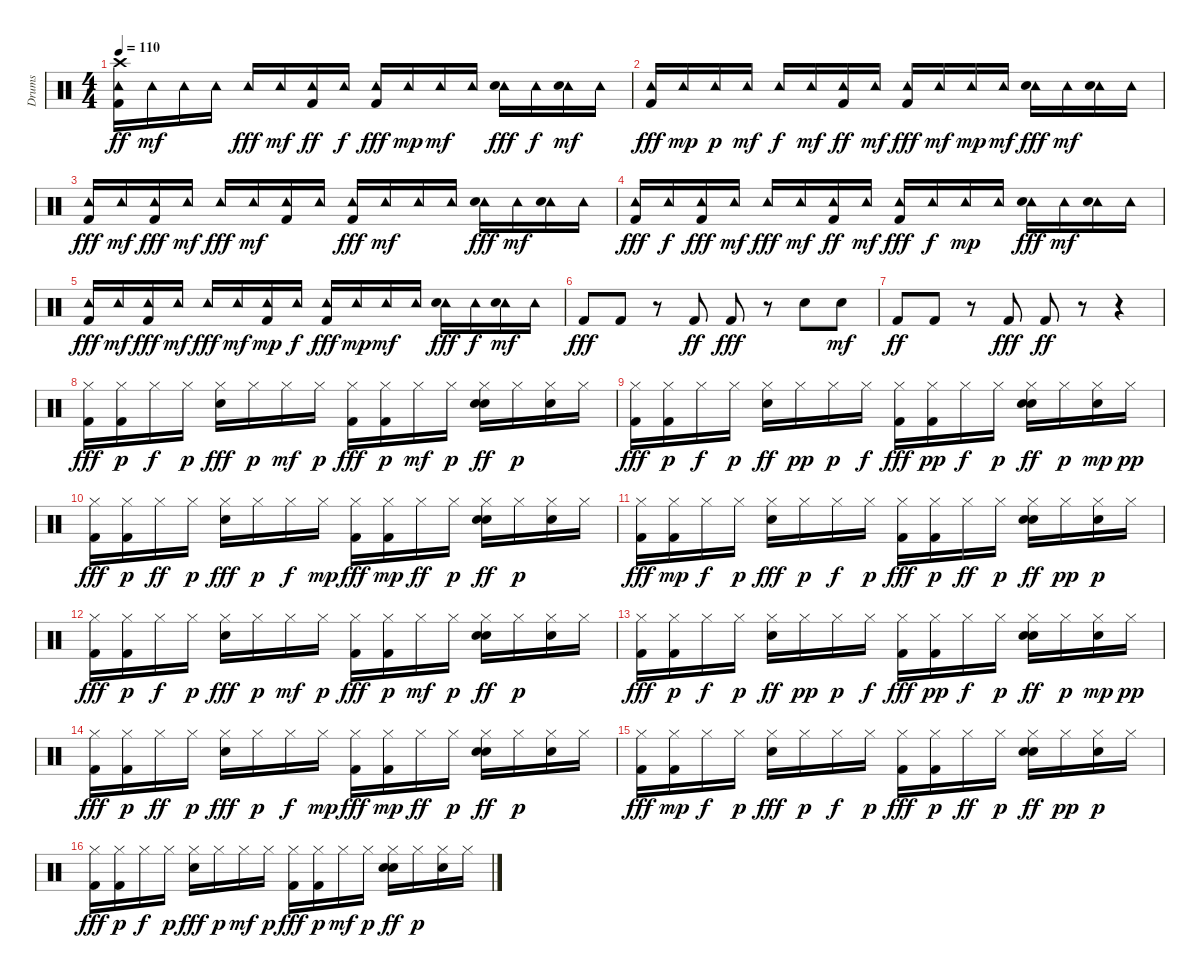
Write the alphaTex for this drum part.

\track ("Drums" "Drums") {instrument percussion}
\staff {score}
\articulation defaults
\ts (4 4)
\tempo 110
\clef neutral
\ks c
("Crash high (hit)" "Tambourine (hit)" "Kick (hit) 2").16{dy ff} "Tambourine (hit)".16{dy mf} "Tambourine (hit)".16 "Tambourine (hit)".16 "Tambourine (hit)".16{dy fff} "Tambourine (hit)".16{dy mf} ("Tambourine (hit)" "Kick (hit) 2").16{dy ff} "Tambourine (hit)".16{dy f} ("Tambourine (hit)" "Kick (hit) 2").16{dy fff} "Tambourine (hit)".16{dy mp} "Tambourine (hit)".16{dy mf} "Tambourine (hit)".16 ("Tambourine (hit)" "Hand Clap (hit)").16{dy fff} "Tambourine (hit)".16{dy f} ("Tambourine (hit)" "Hand Clap (hit)").16{dy mf} "Tambourine (hit)".16 |
("Tambourine (hit)" "Kick (hit) 2").16{dy fff} "Tambourine (hit)".16{dy mp} "Tambourine (hit)".16{dy p} "Tambourine (hit)".16{dy mf} "Tambourine (hit)".16{dy f} "Tambourine (hit)".16{dy mf} ("Tambourine (hit)" "Kick (hit) 2").16{dy ff} "Tambourine (hit)".16{dy mf} ("Tambourine (hit)" "Kick (hit) 2").16{dy fff} "Tambourine (hit)".16{dy mf} "Tambourine (hit)".16{dy mp} "Tambourine (hit)".16{dy mf} ("Tambourine (hit)" "Hand Clap (hit)").16{dy fff} "Tambourine (hit)".16{dy mf} ("Tambourine (hit)" "Hand Clap (hit)").16 "Tambourine (hit)".16 |
("Tambourine (hit)" "Kick (hit) 2").16{dy fff} "Tambourine (hit)".16{dy mf} ("Tambourine (hit)" "Kick (hit) 2").16{dy fff} "Tambourine (hit)".16{dy mf} "Tambourine (hit)".16{dy fff} "Tambourine (hit)".16{dy mf} ("Tambourine (hit)" "Kick (hit) 2").16 "Tambourine (hit)".16 ("Tambourine (hit)" "Kick (hit) 2").16{dy fff} "Tambourine (hit)".16{dy mf} "Tambourine (hit)".16 "Tambourine (hit)".16 ("Tambourine (hit)" "Hand Clap (hit)").16{dy fff} "Tambourine (hit)".16{dy mf} ("Tambourine (hit)" "Hand Clap (hit)").16 "Tambourine (hit)".16 |
("Tambourine (hit)" "Kick (hit) 2").16{dy fff} "Tambourine (hit)".16{dy f} ("Tambourine (hit)" "Kick (hit) 2").16{dy fff} "Tambourine (hit)".16{dy mf} "Tambourine (hit)".16{dy fff} "Tambourine (hit)".16{dy mf} ("Tambourine (hit)" "Kick (hit) 2").16{dy ff} "Tambourine (hit)".16{dy mf} ("Tambourine (hit)" "Kick (hit) 2").16{dy fff} "Tambourine (hit)".16{dy f} "Tambourine (hit)".16{dy mp} "Tambourine (hit)".16 ("Tambourine (hit)" "Hand Clap (hit)").16{dy fff} "Tambourine (hit)".16{dy mf} ("Tambourine (hit)" "Hand Clap (hit)").16 "Tambourine (hit)".16 |
("Tambourine (hit)" "Kick (hit) 2").16{dy fff} "Tambourine (hit)".16{dy mf} ("Tambourine (hit)" "Kick (hit) 2").16{dy fff} "Tambourine (hit)".16{dy mf} "Tambourine (hit)".16{dy fff} "Tambourine (hit)".16{dy mf} ("Tambourine (hit)" "Kick (hit) 2").16{dy mp} "Tambourine (hit)".16{dy f} ("Tambourine (hit)" "Kick (hit) 2").16{dy fff} "Tambourine (hit)".16{dy mp} "Tambourine (hit)".16{dy mf} "Tambourine (hit)".16 ("Tambourine (hit)" "Hand Clap (hit)").16{dy fff} "Tambourine (hit)".16{dy f} ("Tambourine (hit)" "Hand Clap (hit)").16{dy mf} "Tambourine (hit)".16 |
"Kick (hit) 2".8{dy fff} "Kick (hit) 2".8 r.8 "Kick (hit) 2".8{dy ff} "Kick (hit) 2".8{dy fff} r.8 "Hand Clap (hit)".8 "Hand Clap (hit)".8{dy mf} |
"Kick (hit) 2".8{dy ff} "Kick (hit) 2".8 r.8 "Kick (hit) 2".8{dy fff} "Kick (hit) 2".8{dy ff} r.8 r.4 |
("Hi-Hat (closed)" "Kick (hit) 2").16{dy fff} ("Hi-Hat (closed)" "Kick (hit) 2").16{dy p} "Hi-Hat (closed)".16{dy f} "Hi-Hat (closed)".16{dy p} ("Hi-Hat (closed)" "Snare (hit) 2").16{dy fff} "Hi-Hat (closed)".16{dy p} "Hi-Hat (closed)".16{dy mf} "Hi-Hat (closed)".16{dy p} ("Hi-Hat (closed)" "Kick (hit) 2").16{dy fff} ("Hi-Hat (closed)" "Kick (hit) 2").16{dy p} "Hi-Hat (closed)".16{dy mf} "Hi-Hat (closed)".16{dy p} ("Hi-Hat (closed)" "Snare (hit) 2" "Hand Clap (hit)").16{dy ff} "Hi-Hat (closed)".16{dy p} ("Hi-Hat (closed)" "Hand Clap (hit)").16 "Hi-Hat (closed)".16 |
("Hi-Hat (closed)" "Kick (hit) 2").16{dy fff} ("Hi-Hat (closed)" "Kick (hit) 2").16{dy p} "Hi-Hat (closed)".16{dy f} "Hi-Hat (closed)".16{dy p} ("Hi-Hat (closed)" "Snare (hit) 2").16{dy ff} "Hi-Hat (closed)".16{dy pp} "Hi-Hat (closed)".16{dy p} "Hi-Hat (closed)".16{dy f} ("Hi-Hat (closed)" "Kick (hit) 2").16{dy fff} ("Hi-Hat (closed)" "Kick (hit) 2").16{dy pp} "Hi-Hat (closed)".16{dy f} "Hi-Hat (closed)".16{dy p} ("Hi-Hat (closed)" "Snare (hit) 2" "Hand Clap (hit)").16{dy ff} "Hi-Hat (closed)".16{dy p} ("Hi-Hat (closed)" "Hand Clap (hit)").16{dy mp} "Hi-Hat (closed)".16{dy pp} |
("Hi-Hat (closed)" "Kick (hit) 2").16{dy fff} ("Hi-Hat (closed)" "Kick (hit) 2").16{dy p} "Hi-Hat (closed)".16{dy ff} "Hi-Hat (closed)".16{dy p} ("Hi-Hat (closed)" "Snare (hit) 2").16{dy fff} "Hi-Hat (closed)".16{dy p} "Hi-Hat (closed)".16{dy f} "Hi-Hat (closed)".16{dy mp} ("Hi-Hat (closed)" "Kick (hit) 2").16{dy fff} ("Hi-Hat (closed)" "Kick (hit) 2").16{dy mp} "Hi-Hat (closed)".16{dy ff} "Hi-Hat (closed)".16{dy p} ("Hi-Hat (closed)" "Snare (hit) 2" "Hand Clap (hit)").16{dy ff} "Hi-Hat (closed)".16{dy p} ("Hi-Hat (closed)" "Hand Clap (hit)").16 "Hi-Hat (closed)".16 |
("Hi-Hat (closed)" "Kick (hit) 2").16{dy fff} ("Hi-Hat (closed)" "Kick (hit) 2").16{dy mp} "Hi-Hat (closed)".16{dy f} "Hi-Hat (closed)".16{dy p} ("Hi-Hat (closed)" "Snare (hit) 2").16{dy fff} "Hi-Hat (closed)".16{dy p} "Hi-Hat (closed)".16{dy f} "Hi-Hat (closed)".16{dy p} ("Hi-Hat (closed)" "Kick (hit) 2").16{dy fff} ("Hi-Hat (closed)" "Kick (hit) 2").16{dy p} "Hi-Hat (closed)".16{dy ff} "Hi-Hat (closed)".16{dy p} ("Hi-Hat (closed)" "Snare (hit) 2" "Hand Clap (hit)").16{dy ff} "Hi-Hat (closed)".16{dy pp} ("Hi-Hat (closed)" "Hand Clap (hit)").16{dy p} "Hi-Hat (closed)".16 |
("Hi-Hat (closed)" "Kick (hit) 2").16{dy fff} ("Hi-Hat (closed)" "Kick (hit) 2").16{dy p} "Hi-Hat (closed)".16{dy f} "Hi-Hat (closed)".16{dy p} ("Hi-Hat (closed)" "Snare (hit) 2").16{dy fff} "Hi-Hat (closed)".16{dy p} "Hi-Hat (closed)".16{dy mf} "Hi-Hat (closed)".16{dy p} ("Hi-Hat (closed)" "Kick (hit) 2").16{dy fff} ("Hi-Hat (closed)" "Kick (hit) 2").16{dy p} "Hi-Hat (closed)".16{dy mf} "Hi-Hat (closed)".16{dy p} ("Hi-Hat (closed)" "Snare (hit) 2" "Hand Clap (hit)").16{dy ff} "Hi-Hat (closed)".16{dy p} ("Hi-Hat (closed)" "Hand Clap (hit)").16 "Hi-Hat (closed)".16 |
("Hi-Hat (closed)" "Kick (hit) 2").16{dy fff} ("Hi-Hat (closed)" "Kick (hit) 2").16{dy p} "Hi-Hat (closed)".16{dy f} "Hi-Hat (closed)".16{dy p} ("Hi-Hat (closed)" "Snare (hit) 2").16{dy ff} "Hi-Hat (closed)".16{dy pp} "Hi-Hat (closed)".16{dy p} "Hi-Hat (closed)".16{dy f} ("Hi-Hat (closed)" "Kick (hit) 2").16{dy fff} ("Hi-Hat (closed)" "Kick (hit) 2").16{dy pp} "Hi-Hat (closed)".16{dy f} "Hi-Hat (closed)".16{dy p} ("Hi-Hat (closed)" "Snare (hit) 2" "Hand Clap (hit)").16{dy ff} "Hi-Hat (closed)".16{dy p} ("Hi-Hat (closed)" "Hand Clap (hit)").16{dy mp} "Hi-Hat (closed)".16{dy pp} |
("Hi-Hat (closed)" "Kick (hit) 2").16{dy fff} ("Hi-Hat (closed)" "Kick (hit) 2").16{dy p} "Hi-Hat (closed)".16{dy ff} "Hi-Hat (closed)".16{dy p} ("Hi-Hat (closed)" "Snare (hit) 2").16{dy fff} "Hi-Hat (closed)".16{dy p} "Hi-Hat (closed)".16{dy f} "Hi-Hat (closed)".16{dy mp} ("Hi-Hat (closed)" "Kick (hit) 2").16{dy fff} ("Hi-Hat (closed)" "Kick (hit) 2").16{dy mp} "Hi-Hat (closed)".16{dy ff} "Hi-Hat (closed)".16{dy p} ("Hi-Hat (closed)" "Snare (hit) 2" "Hand Clap (hit)").16{dy ff} "Hi-Hat (closed)".16{dy p} ("Hi-Hat (closed)" "Hand Clap (hit)").16 "Hi-Hat (closed)".16 |
("Hi-Hat (closed)" "Kick (hit) 2").16{dy fff} ("Hi-Hat (closed)" "Kick (hit) 2").16{dy mp} "Hi-Hat (closed)".16{dy f} "Hi-Hat (closed)".16{dy p} ("Hi-Hat (closed)" "Snare (hit) 2").16{dy fff} "Hi-Hat (closed)".16{dy p} "Hi-Hat (closed)".16{dy f} "Hi-Hat (closed)".16{dy p} ("Hi-Hat (closed)" "Kick (hit) 2").16{dy fff} ("Hi-Hat (closed)" "Kick (hit) 2").16{dy p} "Hi-Hat (closed)".16{dy ff} "Hi-Hat (closed)".16{dy p} ("Hi-Hat (closed)" "Snare (hit) 2" "Hand Clap (hit)").16{dy ff} "Hi-Hat (closed)".16{dy pp} ("Hi-Hat (closed)" "Hand Clap (hit)").16{dy p} "Hi-Hat (closed)".16 |
("Hi-Hat (closed)" "Kick (hit) 2").16{dy fff} ("Hi-Hat (closed)" "Kick (hit) 2").16{dy p} "Hi-Hat (closed)".16{dy f} "Hi-Hat (closed)".16{dy p} ("Hi-Hat (closed)" "Snare (hit) 2").16{dy fff} "Hi-Hat (closed)".16{dy p} "Hi-Hat (closed)".16{dy mf} "Hi-Hat (closed)".16{dy p} ("Hi-Hat (closed)" "Kick (hit) 2").16{dy fff} ("Hi-Hat (closed)" "Kick (hit) 2").16{dy p} "Hi-Hat (closed)".16{dy mf} "Hi-Hat (closed)".16{dy p} ("Hi-Hat (closed)" "Snare (hit) 2" "Hand Clap (hit)").16{dy ff} "Hi-Hat (closed)".16{dy p} ("Hi-Hat (closed)" "Hand Clap (hit)").16 "Hi-Hat (closed)".16
